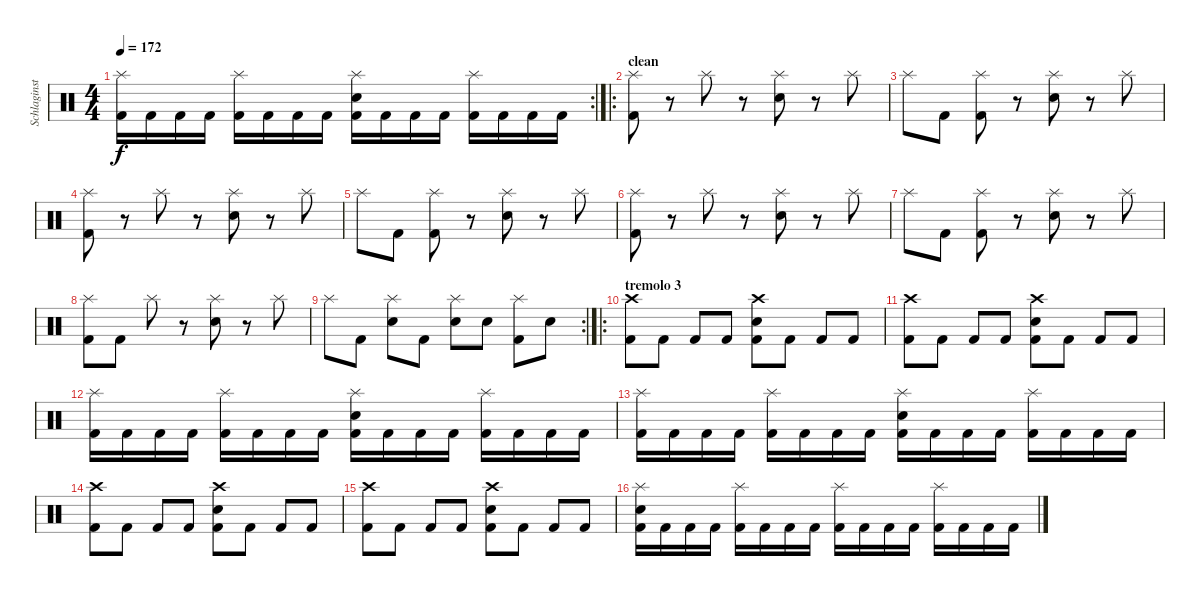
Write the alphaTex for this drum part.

\track ("Schlaginstrumente - Auswahl" "Schlaginst") {instrument percussion}
\staff {score}
\articulation defaults
\rc 2
\ts (4 4)
\tempo 172
\clef neutral
\ks c
("Splash (hit)" "Kick (hit) 2").16{dy f} "Kick (hit) 2".16 "Kick (hit) 2".16 "Kick (hit) 2".16 ("Splash (hit)" "Kick (hit) 2").16 "Kick (hit) 2".16 "Kick (hit) 2".16 "Kick (hit) 2".16 ("Electric Snare (hit)" "Splash (hit)" "Kick (hit) 2").16 "Kick (hit) 2".16 "Kick (hit) 2".16 "Kick (hit) 2".16 ("Splash (hit)" "Kick (hit) 2").16 "Kick (hit) 2".16 "Kick (hit) 2".16 "Kick (hit) 2".16 |
\ro
\section ("" "clean")
("Splash (hit)" "Kick (hit) 2").8 r.8 "Splash (hit)".8 r.8 ("Electric Snare (hit)" "Splash (hit)").8 r.8 "Splash (hit)".8 |
"Splash (hit)".8 "Kick (hit) 2".8 ("Splash (hit)" "Kick (hit) 2").8 r.8 ("Electric Snare (hit)" "Splash (hit)").8 r.8 "Splash (hit)".8 |
("Splash (hit)" "Kick (hit) 2").8 r.8 "Splash (hit)".8 r.8 ("Electric Snare (hit)" "Splash (hit)").8 r.8 "Splash (hit)".8 |
"Splash (hit)".8 "Kick (hit) 2".8 ("Splash (hit)" "Kick (hit) 2").8 r.8 ("Electric Snare (hit)" "Splash (hit)").8 r.8 "Splash (hit)".8 |
("Splash (hit)" "Kick (hit) 2").8 r.8 "Splash (hit)".8 r.8 ("Electric Snare (hit)" "Splash (hit)").8 r.8 "Splash (hit)".8 |
"Splash (hit)".8 "Kick (hit) 2".8 ("Splash (hit)" "Kick (hit) 2").8 r.8 ("Electric Snare (hit)" "Splash (hit)").8 r.8 "Splash (hit)".8 |
("Splash (hit)" "Kick (hit) 2").8 "Kick (hit) 2".8 "Splash (hit)".8 r.8 ("Electric Snare (hit)" "Splash (hit)").8 r.8 "Splash (hit)".8 |
\rc 2 "Splash (hit)".8 "Kick (hit) 2".8
("Electric Snare (hit)" "Splash (hit)").8 "Kick (hit) 2".8 ("Electric Snare (hit)" "Splash (hit)").8 "Electric Snare (hit)".8 ("Splash (hit)" "Kick (hit) 2").8 "Electric Snare (hit)".8 |
\ro
\section ("" "tremolo 3")
("Crash high (hit)" "Kick (hit) 2").8 "Kick (hit) 2".8 "Kick (hit) 2".8 "Kick (hit) 2".8 ("Electric Snare (hit)" "Crash high (hit)" "Kick (hit) 2").8 "Kick (hit) 2".8 "Kick (hit) 2".8 "Kick (hit) 2".8 |
("Crash high (hit)" "Kick (hit) 2").8 "Kick (hit) 2".8 "Kick (hit) 2".8 "Kick (hit) 2".8 ("Electric Snare (hit)" "Crash high (hit)" "Kick (hit) 2").8 "Kick (hit) 2".8 "Kick (hit) 2".8 "Kick (hit) 2".8 |
("Splash (hit)" "Kick (hit) 2").16 "Kick (hit) 2".16 "Kick (hit) 2".16 "Kick (hit) 2".16 ("Splash (hit)" "Kick (hit) 2").16 "Kick (hit) 2".16 "Kick (hit) 2".16 "Kick (hit) 2".16 ("Electric Snare (hit)" "Splash (hit)" "Kick (hit) 2").16 "Kick (hit) 2".16 "Kick (hit) 2".16 "Kick (hit) 2".16 ("Splash (hit)" "Kick (hit) 2").16 "Kick (hit) 2".16 "Kick (hit) 2".16 "Kick (hit) 2".16 |
("Splash (hit)" "Kick (hit) 2").16 "Kick (hit) 2".16 "Kick (hit) 2".16 "Kick (hit) 2".16 ("Splash (hit)" "Kick (hit) 2").16 "Kick (hit) 2".16 "Kick (hit) 2".16 "Kick (hit) 2".16 ("Electric Snare (hit)" "Splash (hit)" "Kick (hit) 2").16 "Kick (hit) 2".16 "Kick (hit) 2".16 "Kick (hit) 2".16 ("Splash (hit)" "Kick (hit) 2").16 "Kick (hit) 2".16 "Kick (hit) 2".16 "Kick (hit) 2".16 |
("Crash high (hit)" "Kick (hit) 2").8 "Kick (hit) 2".8 "Kick (hit) 2".8 "Kick (hit) 2".8 ("Electric Snare (hit)" "Crash high (hit)" "Kick (hit) 2").8 "Kick (hit) 2".8 "Kick (hit) 2".8 "Kick (hit) 2".8 |
("Crash high (hit)" "Kick (hit) 2").8 "Kick (hit) 2".8 "Kick (hit) 2".8 "Kick (hit) 2".8 ("Electric Snare (hit)" "Crash high (hit)" "Kick (hit) 2").8 "Kick (hit) 2".8 "Kick (hit) 2".8 "Kick (hit) 2".8 |
("Electric Snare (hit)" "Splash (hit)" "Kick (hit) 2").16 "Kick (hit) 2".16 "Kick (hit) 2".16 "Kick (hit) 2".16 ("Splash (hit)" "Kick (hit) 2").16 "Kick (hit) 2".16 "Kick (hit) 2".16 "Kick (hit) 2".16 ("Splash (hit)" "Kick (hit) 2").16 "Kick (hit) 2".16 "Kick (hit) 2".16 "Kick (hit) 2".16 ("Splash (hit)" "Kick (hit) 2").16 "Kick (hit) 2".16 "Kick (hit) 2".16 "Kick (hit) 2".16
